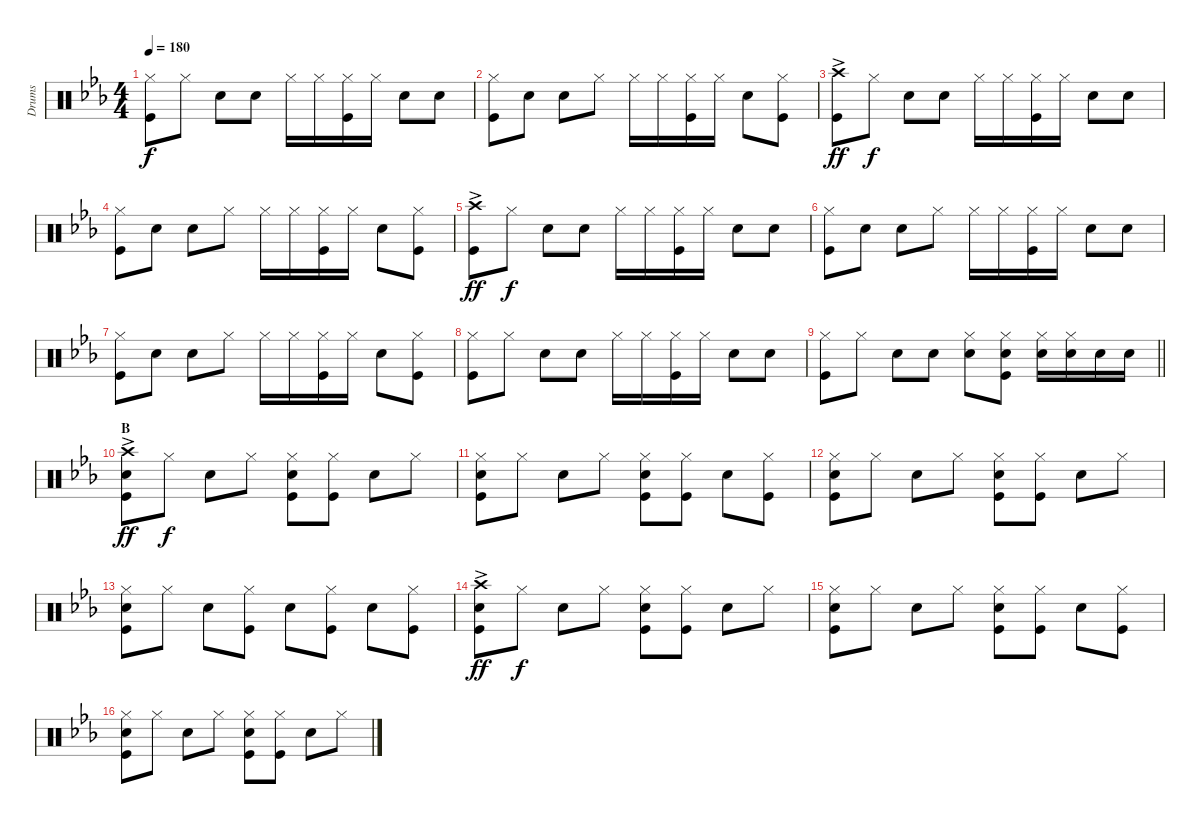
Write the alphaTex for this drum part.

\track ("Drums" "Drums") {instrument percussion}
\staff {score}
\articulation defaults
\ts (4 4)
\tempo 180
\clef neutral
\ks cminor
("Hi-Hat (closed)" "Kick (hit)").8{dy f} "Hi-Hat (closed)".8 "Snare (hit) 2".8 "Snare (hit) 2".8 "Hi-Hat (closed)".16 "Hi-Hat (closed)".16 ("Hi-Hat (closed)" "Kick (hit)").16 "Hi-Hat (closed)".16 "Snare (hit) 2".8 "Snare (hit) 2".8 |
("Hi-Hat (closed)" "Kick (hit)").8 "Snare (hit) 2".8 "Snare (hit) 2".8 "Hi-Hat (closed)".8 "Hi-Hat (closed)".16 "Hi-Hat (closed)".16 ("Hi-Hat (closed)" "Kick (hit)").16 "Hi-Hat (closed)".16 "Snare (hit) 2".8 ("Hi-Hat (closed)" "Kick (hit)").8 |
("Crash high (hit)"{ac} "Kick (hit)").8{dy ff} "Hi-Hat (closed)".8{dy f} "Snare (hit) 2".8 "Snare (hit) 2".8 "Hi-Hat (closed)".16 "Hi-Hat (closed)".16 ("Hi-Hat (closed)" "Kick (hit)").16 "Hi-Hat (closed)".16 "Snare (hit) 2".8 "Snare (hit) 2".8 |
("Hi-Hat (closed)" "Kick (hit)").8 "Snare (hit) 2".8 "Snare (hit) 2".8 "Hi-Hat (closed)".8 "Hi-Hat (closed)".16 "Hi-Hat (closed)".16 ("Hi-Hat (closed)" "Kick (hit)").16 "Hi-Hat (closed)".16 "Snare (hit) 2".8 ("Hi-Hat (closed)" "Kick (hit)").8 |
("Crash high (hit)"{ac} "Kick (hit)").8{dy ff} "Hi-Hat (closed)".8{dy f} "Snare (hit) 2".8 "Snare (hit) 2".8 "Hi-Hat (closed)".16 "Hi-Hat (closed)".16 ("Hi-Hat (closed)" "Kick (hit)").16 "Hi-Hat (closed)".16 "Snare (hit) 2".8 "Snare (hit) 2".8 |
("Kick (hit)" "Hi-Hat (closed)").8 "Snare (hit) 2".8 "Snare (hit) 2".8 "Hi-Hat (closed)".8 "Hi-Hat (closed)".16 "Hi-Hat (closed)".16 ("Hi-Hat (closed)" "Kick (hit)").16 "Hi-Hat (closed)".16 "Snare (hit) 2".8 "Snare (hit) 2".8 |
("Hi-Hat (closed)" "Kick (hit)").8 "Snare (hit) 2".8 "Snare (hit) 2".8 "Hi-Hat (closed)".8 "Hi-Hat (closed)".16 "Hi-Hat (closed)".16 ("Hi-Hat (closed)" "Kick (hit)").16 "Hi-Hat (closed)".16 "Snare (hit) 2".8 ("Hi-Hat (closed)" "Kick (hit)").8 |
("Hi-Hat (closed)" "Kick (hit)").8 "Hi-Hat (closed)".8 "Snare (hit) 2".8 "Snare (hit) 2".8 "Hi-Hat (closed)".16 "Hi-Hat (closed)".16 ("Hi-Hat (closed)" "Kick (hit)").16 "Hi-Hat (closed)".16 "Snare (hit) 2".8 "Snare (hit) 2".8 |
\barLineRight lightlight
("Hi-Hat (closed)" "Kick (hit)").8 "Hi-Hat (closed)".8 "Snare (hit) 2".8 "Snare (hit) 2".8 ("Hi-Hat (closed)" "Snare (hit) 2").8 ("Hi-Hat (closed)" "Snare (hit) 2" "Kick (hit)").8 ("Hi-Hat (closed)" "Snare (hit) 2").16 ("Hi-Hat (closed)" "Snare (hit) 2").16 "Snare (hit) 2".16 "Snare (hit) 2".16 |
\section ("" "B")
("Crash high (hit)"{ac} "Kick (hit)" "Snare (hit) 2").8{dy ff} "Hi-Hat (closed)".8{dy f} "Snare (hit) 2".8 "Hi-Hat (closed)".8 ("Hi-Hat (closed)" "Snare (hit) 2" "Kick (hit)").8 ("Kick (hit)" "Hi-Hat (closed)").8 "Snare (hit) 2".8 "Hi-Hat (closed)".8 |
("Snare (hit) 2" "Kick (hit)" "Hi-Hat (closed)").8 "Hi-Hat (closed)".8 "Snare (hit) 2".8 "Hi-Hat (closed)".8 ("Hi-Hat (closed)" "Snare (hit) 2" "Kick (hit)").8 ("Kick (hit)" "Hi-Hat (closed)").8 "Snare (hit) 2".8 ("Kick (hit)" "Hi-Hat (closed)").8 |
("Hi-Hat (closed)" "Kick (hit)" "Snare (hit) 2").8 "Hi-Hat (closed)".8 "Snare (hit) 2".8 "Hi-Hat (closed)".8 ("Hi-Hat (closed)" "Kick (hit)" "Snare (hit) 2").8 ("Kick (hit)" "Hi-Hat (closed)").8 "Snare (hit) 2".8 "Hi-Hat (closed)".8 |
("Hi-Hat (closed)" "Snare (hit) 2" "Kick (hit)").8 "Hi-Hat (closed)".8 "Snare (hit) 2".8 ("Hi-Hat (closed)" "Kick (hit)").8 "Snare (hit) 2".8 ("Hi-Hat (closed)" "Kick (hit)").8 "Snare (hit) 2".8 ("Kick (hit)" "Hi-Hat (closed)").8 |
("Crash high (hit)"{ac} "Kick (hit)" "Snare (hit) 2").8{dy ff} "Hi-Hat (closed)".8{dy f} "Snare (hit) 2".8 "Hi-Hat (closed)".8 ("Snare (hit) 2" "Kick (hit)" "Hi-Hat (closed)").8 ("Hi-Hat (closed)" "Kick (hit)").8 "Snare (hit) 2".8 "Hi-Hat (closed)".8 |
("Hi-Hat (closed)" "Snare (hit) 2" "Kick (hit)").8 "Hi-Hat (closed)".8 "Snare (hit) 2".8 "Hi-Hat (closed)".8 ("Hi-Hat (closed)" "Kick (hit)" "Snare (hit) 2").8 ("Kick (hit)" "Hi-Hat (closed)").8 "Snare (hit) 2".8 ("Hi-Hat (closed)" "Kick (hit)").8 |
("Hi-Hat (closed)" "Kick (hit)" "Snare (hit) 2").8 "Hi-Hat (closed)".8 "Snare (hit) 2".8 "Hi-Hat (closed)".8 ("Hi-Hat (closed)" "Kick (hit)" "Snare (hit) 2").8 ("Hi-Hat (closed)" "Kick (hit)").8 "Snare (hit) 2".8 "Hi-Hat (closed)".8
